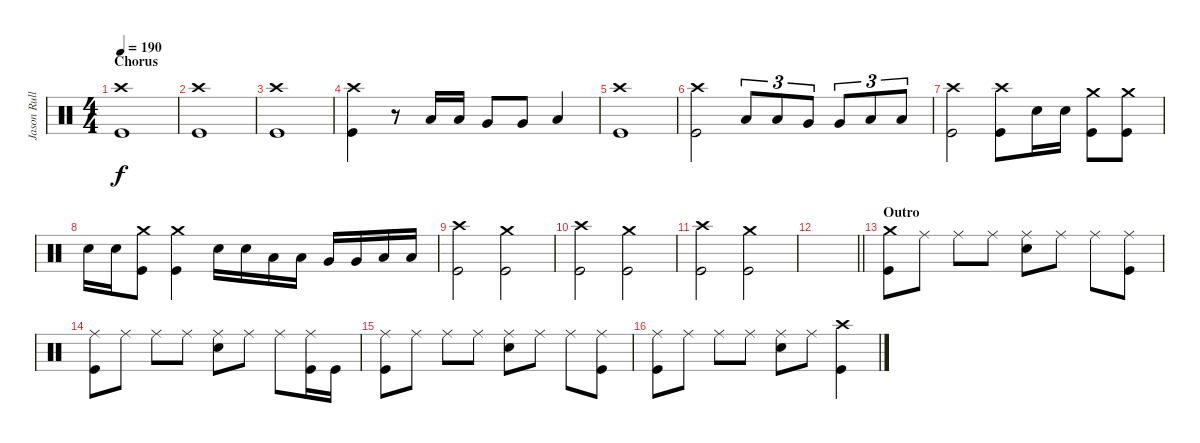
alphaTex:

\track ("Jason Rullo - Drums and Percussion" "Jason Rull") {instrument percussion}
\staff {score}
\articulation defaults
\ts (4 4)
\section ("" "Chorus")
\tempo 190
\clef neutral
\ks c
("Kick (hit)" "Crash high (hit)").1{dy f} |
("Kick (hit)" "Crash high (hit)").1 |
("Kick (hit)" "Crash high (hit)").1 |
("Kick (hit)" "Crash high (hit)").4 r.8 "Low Tom (hit)".16 "Low Tom (hit)".16 "Very Low Tom (hit)".8 "Very Low Tom (hit)".8 "Low Floor Tom (hit)".4 |
("Kick (hit)" "Crash high (hit)").1 |
("Kick (hit)" "Crash high (hit)").2 "Low Tom (hit)".8{tu (3 2)} "Low Tom (hit)".8{tu (3 2)} "Very Low Tom (hit)".8{tu (3 2)} "Very Low Tom (hit)".8{tu (3 2)} "Low Floor Tom (hit)".8{tu (3 2)} "Low Floor Tom (hit)".8{tu (3 2)} |
("Kick (hit)" "Crash high (hit)").2 ("Kick (hit)" "Crash high (hit)").8 "Snare (hit) 2".16 "Snare (hit) 2".16 ("Kick (hit)" "Crash medium (hit)").8 ("Kick (hit)" "Crash medium (hit)").8 |
"Snare (hit) 2".16 "Snare (hit) 2".16 ("Kick (hit)" "Crash medium (hit)").8 ("Crash medium (hit)" "Kick (hit)").4 "Snare (hit) 2".16 "Snare (hit) 2".16 "Low Tom (hit)".16 "Low Tom (hit)".16 "Very Low Tom (hit)".16 "Very Low Tom (hit)".16 "Low Floor Tom (hit)".16 "Low Floor Tom (hit)".16 |
("Kick (hit)" "Crash high (hit)").2 ("Kick (hit)" "Crash medium (hit)").2 |
("Kick (hit)" "Crash high (hit)").2 ("Kick (hit)" "Crash medium (hit)").2 |
("Kick (hit)" "Crash high (hit)").2 ("Kick (hit)" "Crash medium (hit)").2 |
\barLineRight lightlight
|
\section ("" "Outro")
("Crash medium (hit)" "Kick (hit)").8 "Ride (middle)".8 "Ride (middle)".8 "Ride (middle)".8 ("Snare (hit) 2" "Ride (middle)").8 "Ride (middle)".8 "Ride (middle)".8 ("Ride (middle)" "Kick (hit)").8 |
("Kick (hit)" "Ride (middle)").8 "Ride (middle)".8 "Ride (middle)".8 "Ride (middle)".8 ("Snare (hit) 2" "Ride (middle)").8 "Ride (middle)".8 "Ride (middle)".8 ("Kick (hit)" "Ride (middle)").16 "Kick (hit)".16 |
("Ride (middle)" "Kick (hit)").8 "Ride (middle)".8 "Ride (middle)".8 "Ride (middle)".8 ("Snare (hit) 2" "Ride (middle)").8 "Ride (middle)".8 "Ride (middle)".8 ("Ride (middle)" "Kick (hit)").8 |
("Kick (hit)" "Ride (middle)").8 "Ride (middle)".8 "Ride (middle)".8 "Ride (middle)".8 ("Snare (hit) 2" "Ride (middle)").8 "Ride (middle)".8 ("Crash high (hit)" "Kick (hit)").4
